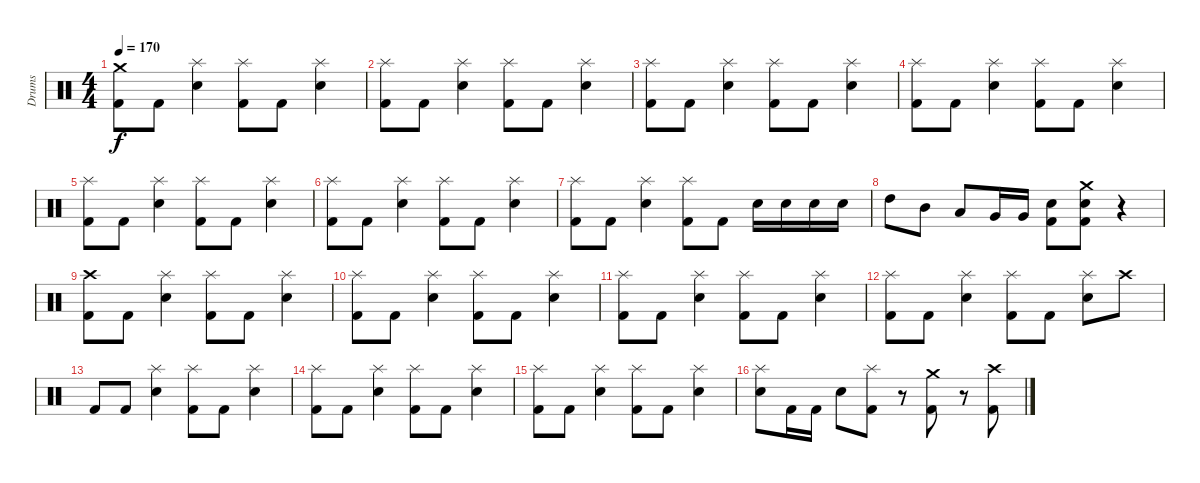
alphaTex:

\track ("Drums" "Drums") {instrument percussion}
\staff {score}
\articulation defaults
\ts (4 4)
\tempo 170
\clef neutral
\ks c
("Crash medium (hit)" "Kick (hit) 2").8{dy f} "Kick (hit) 2".8 ("Splash (hit)" "Electric Snare (hit)").4 ("Splash (hit)" "Kick (hit) 2").8 "Kick (hit) 2".8 ("Splash (hit)" "Electric Snare (hit)").4 |
("Splash (hit)" "Kick (hit) 2").8 "Kick (hit) 2".8 ("Splash (hit)" "Electric Snare (hit)").4 ("Splash (hit)" "Kick (hit) 2").8 "Kick (hit) 2".8 ("Splash (hit)" "Electric Snare (hit)").4 |
("Splash (hit)" "Kick (hit) 2").8 "Kick (hit) 2".8 ("Splash (hit)" "Electric Snare (hit)").4 ("Splash (hit)" "Kick (hit) 2").8 "Kick (hit) 2".8 ("Splash (hit)" "Electric Snare (hit)").4 |
("Splash (hit)" "Kick (hit) 2").8 "Kick (hit) 2".8 ("Splash (hit)" "Electric Snare (hit)").4 ("Splash (hit)" "Kick (hit) 2").8 "Kick (hit) 2".8 ("Splash (hit)" "Electric Snare (hit)").4 |
("Splash (hit)" "Kick (hit) 2").8 "Kick (hit) 2".8 ("Splash (hit)" "Electric Snare (hit)").4 ("Splash (hit)" "Kick (hit) 2").8 "Kick (hit) 2".8 ("Splash (hit)" "Electric Snare (hit)").4 |
("Splash (hit)" "Kick (hit) 2").8 "Kick (hit) 2".8 ("Splash (hit)" "Electric Snare (hit)").4 ("Splash (hit)" "Kick (hit) 2").8 "Kick (hit) 2".8 ("Splash (hit)" "Electric Snare (hit)").4 |
("Splash (hit)" "Kick (hit) 2").8 "Kick (hit) 2".8 ("Splash (hit)" "Electric Snare (hit)").4 ("Splash (hit)" "Kick (hit) 2").8 "Kick (hit) 2".8 "Electric Snare (hit)".16 "Electric Snare (hit)".16 "Electric Snare (hit)".16 "Electric Snare (hit)".16 |
"High Tom (hit)".8 "Mid Tom (hit)".8 "Low Tom (hit)".8 "Very Low Tom (hit)".16 "Very Low Tom (hit)".16 ("Electric Snare (hit)" "Kick (hit) 2").8 ("Crash medium (hit)" "Electric Snare (hit)" "Kick (hit) 2").8 r.4 |
("Crash high (hit)" "Kick (hit) 2").8 "Kick (hit) 2".8 ("Splash (hit)" "Electric Snare (hit)").4 ("Splash (hit)" "Kick (hit) 2").8 "Kick (hit) 2".8 ("Splash (hit)" "Electric Snare (hit)").4 |
("Splash (hit)" "Kick (hit) 2").8 "Kick (hit) 2".8 ("Splash (hit)" "Electric Snare (hit)").4 ("Splash (hit)" "Kick (hit) 2").8 "Kick (hit) 2".8 ("Splash (hit)" "Electric Snare (hit)").4 |
("Splash (hit)" "Kick (hit) 2").8 "Kick (hit) 2".8 ("Splash (hit)" "Electric Snare (hit)").4 ("Splash (hit)" "Kick (hit) 2").8 "Kick (hit) 2".8 ("Splash (hit)" "Electric Snare (hit)").4 |
("Splash (hit)" "Kick (hit) 2").8 "Kick (hit) 2".8 ("Splash (hit)" "Electric Snare (hit)").4 ("Splash (hit)" "Kick (hit) 2").8 "Kick (hit) 2".8 ("Splash (hit)" "Electric Snare (hit)").8 "Crash high (hit)".8 |
"Kick (hit) 2".8 "Kick (hit) 2".8 ("Splash (hit)" "Electric Snare (hit)").4 ("Splash (hit)" "Kick (hit) 2").8 "Kick (hit) 2".8 ("Splash (hit)" "Electric Snare (hit)").4 |
("Splash (hit)" "Kick (hit) 2").8 "Kick (hit) 2".8 ("Splash (hit)" "Electric Snare (hit)").4 ("Splash (hit)" "Kick (hit) 2").8 "Kick (hit) 2".8 ("Splash (hit)" "Electric Snare (hit)").4 |
("Splash (hit)" "Kick (hit) 2").8 "Kick (hit) 2".8 ("Splash (hit)" "Electric Snare (hit)").4 ("Splash (hit)" "Kick (hit) 2").8 "Kick (hit) 2".8 ("Splash (hit)" "Electric Snare (hit)").4 |
("Splash (hit)" "Electric Snare (hit)").8 "Kick (hit) 2".16 "Kick (hit) 2".16 "Electric Snare (hit)".8 ("Splash (hit)" "Kick (hit) 2").8 r.8 ("Crash medium (hit)" "Kick (hit) 2").8 r.8 ("Crash high (hit)" "Kick (hit) 2").8
